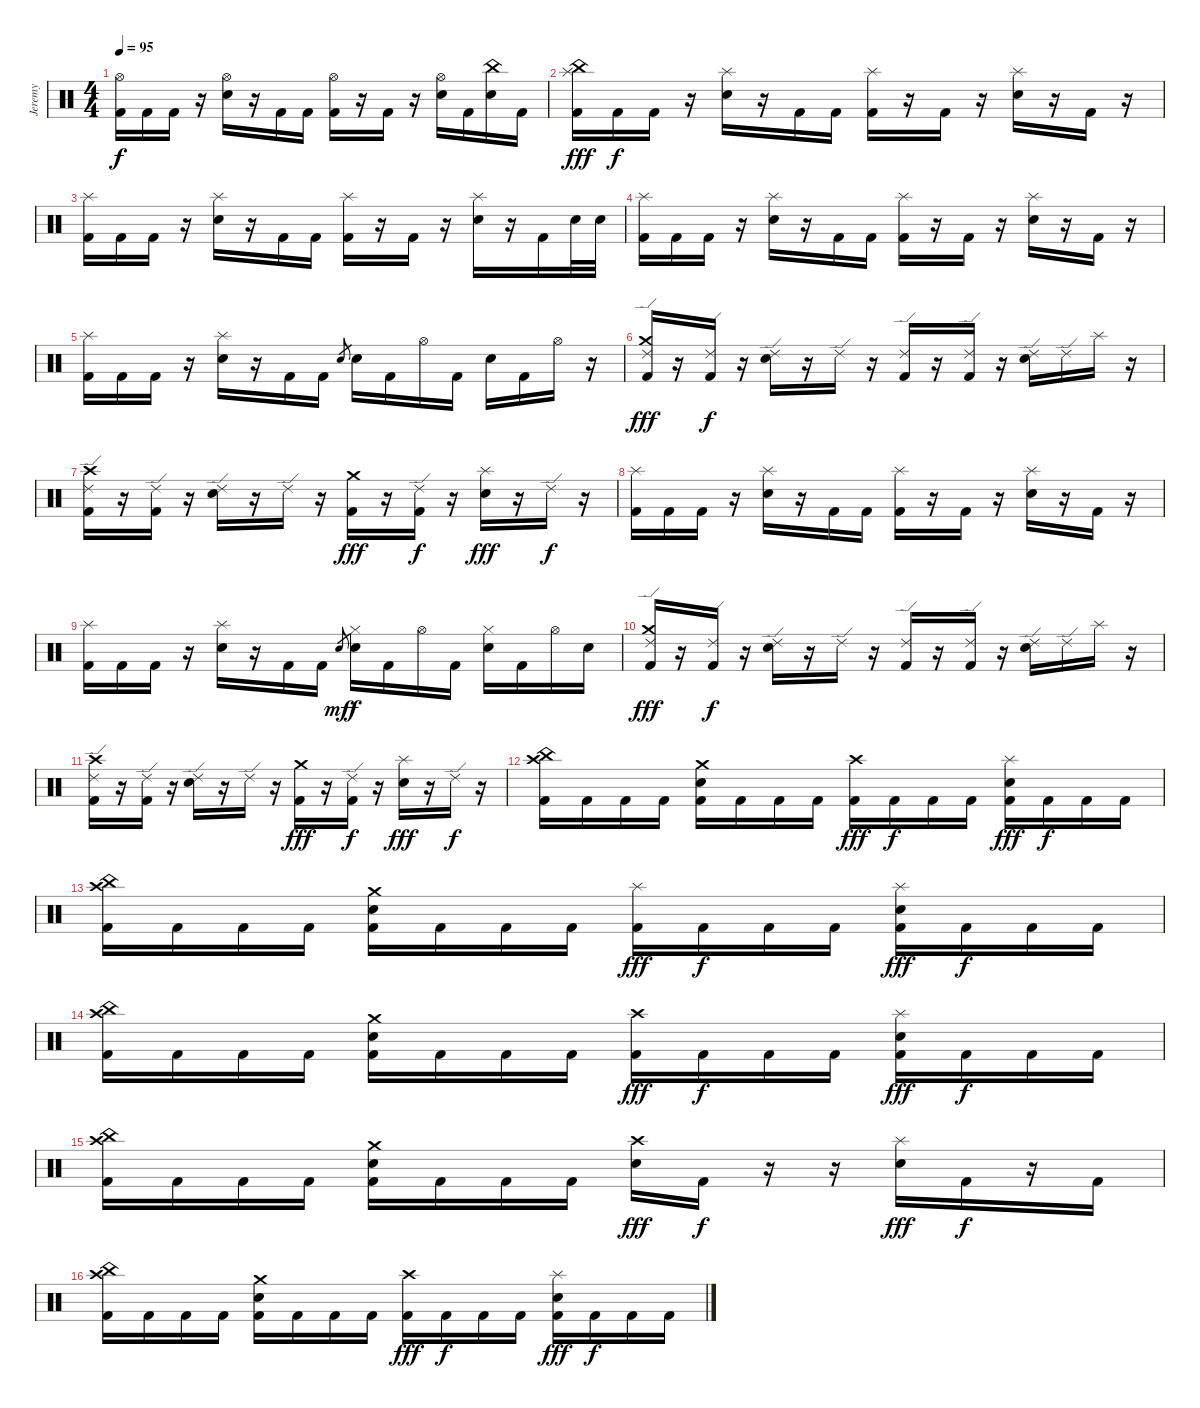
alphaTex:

\track ("Jeremy" "Jeremy") {instrument percussion}
\staff {score}
\articulation defaults
\ts (4 4)
\tempo 95
\clef neutral
\ks c
("Hi-Hat (open)" "Kick (hit) 2").16{dy f} "Kick (hit) 2".16 "Kick (hit) 2".16 r.16 ("Hi-Hat (open)" "Electric Snare (hit)").16 r.16 "Kick (hit) 2".16 "Kick (hit) 2".16 ("Hi-Hat (open)" "Kick (hit) 2").16 r.16 "Kick (hit) 2".16 r.16 ("Hi-Hat (open)" "Electric Snare (hit)").16 "Kick (hit) 2".16 ("China (hit)" "Electric Snare (hit)").16 "Kick (hit) 2".16 |
("China (hit)" "Splash (hit)" "Kick (hit) 2").16{dy fff} "Kick (hit) 2".16{dy f} "Kick (hit) 2".16 r.16 ("Splash (hit)" "Electric Snare (hit)").16 r.16 "Kick (hit) 2".16 "Kick (hit) 2".16 ("Splash (hit)" "Kick (hit) 2").16 r.16 "Kick (hit) 2".16 r.16 ("Splash (hit)" "Electric Snare (hit)").16 r.16 "Kick (hit) 2".16 r.16 |
("Splash (hit)" "Kick (hit) 2").16 "Kick (hit) 2".16 "Kick (hit) 2".16 r.16 ("Splash (hit)" "Electric Snare (hit)").16 r.16 "Kick (hit) 2".16 "Kick (hit) 2".16 ("Splash (hit)" "Kick (hit) 2").16 r.16 "Kick (hit) 2".16 r.16 ("Splash (hit)" "Electric Snare (hit)").16 r.16 "Kick (hit) 2".16 "Electric Snare (hit)".32 "Electric Snare (hit)".32 |
("Splash (hit)" "Kick (hit) 2").16 "Kick (hit) 2".16 "Kick (hit) 2".16 r.16 ("Splash (hit)" "Electric Snare (hit)").16 r.16 "Kick (hit) 2".16 "Kick (hit) 2".16 ("Splash (hit)" "Kick (hit) 2").16 r.16 "Kick (hit) 2".16 r.16 ("Splash (hit)" "Electric Snare (hit)").16 r.16 "Kick (hit) 2".16 r.16 |
("Splash (hit)" "Kick (hit) 2").16 "Kick (hit) 2".16 "Kick (hit) 2".16 r.16 ("Splash (hit)" "Electric Snare (hit)").16 r.16 "Kick (hit) 2".16 "Kick (hit) 2".16 "Electric Snare (hit)".8{gr} "Electric Snare (hit)".16 "Kick (hit) 2".16 "Hi-Hat (open)".16 "Kick (hit) 2".16 "Electric Snare (hit)".16 "Kick (hit) 2".16 "Hi-Hat (open)".16 r.16 |
("Crash medium (hit)" "Ride (edge) 2" "Kick (hit) 2").16{dy fff} r.16 ("Ride (edge) 2" "Kick (hit) 2").16{dy f} r.16 ("Ride (edge) 2" "Electric Snare (hit)").16 r.16 "Ride (edge) 2".16 r.16 ("Ride (edge) 2" "Kick (hit) 2").16 r.16 ("Ride (edge) 2" "Kick (hit) 2").16 r.16 ("Ride (edge) 2" "Electric Snare (hit)").16 "Ride (edge) 2".16 "Splash (hit)".16 r.16 |
("Crash high (hit)" "Ride (edge) 2" "Kick (hit) 2").16 r.16 ("Ride (edge) 2" "Kick (hit) 2").16 r.16 ("Ride (edge) 2" "Electric Snare (hit)").16 r.16 "Ride (edge) 2".16 r.16 ("Crash medium (hit)" "Kick (hit) 2").16{dy fff} r.16 ("Ride (edge) 2" "Kick (hit) 2").16{dy f} r.16 ("Splash (hit)" "Electric Snare (hit)").16{dy fff} r.16 "Ride (edge) 2".16{dy f} r.16 |
("Splash (hit)" "Kick (hit) 2").16 "Kick (hit) 2".16 "Kick (hit) 2".16 r.16 ("Splash (hit)" "Electric Snare (hit)").16 r.16 "Kick (hit) 2".16 "Kick (hit) 2".16 ("Splash (hit)" "Kick (hit) 2").16 r.16 "Kick (hit) 2".16 r.16 ("Splash (hit)" "Electric Snare (hit)").16 r.16 "Kick (hit) 2".16 r.16 |
("Splash (hit)" "Kick (hit) 2").16 "Kick (hit) 2".16 "Kick (hit) 2".16 r.16 ("Splash (hit)" "Electric Snare (hit)").16 r.16 "Kick (hit) 2".16 "Kick (hit) 2".16 "Electric Snare (hit)".8{gr dy mf} ("Hi-Hat (closed)" "Electric Snare (hit)").16{dy f} "Kick (hit) 2".16 "Hi-Hat (open)".16 "Kick (hit) 2".16 ("Hi-Hat (closed)" "Electric Snare (hit)").16 "Kick (hit) 2".16 "Hi-Hat (open)".16 "Electric Snare (hit)".16 |
("Crash medium (hit)" "Ride (edge) 2" "Kick (hit) 2").16{dy fff} r.16 ("Ride (edge) 2" "Kick (hit) 2").16{dy f} r.16 ("Ride (edge) 2" "Electric Snare (hit)").16 r.16 "Ride (edge) 2".16 r.16 ("Ride (edge) 2" "Kick (hit) 2").16 r.16 ("Ride (edge) 2" "Kick (hit) 2").16 r.16 ("Ride (edge) 2" "Electric Snare (hit)").16 "Ride (edge) 2".16 "Splash (hit)".16 r.16 |
("Crash high (hit)" "Ride (edge) 2" "Kick (hit) 2").16 r.16 ("Ride (edge) 2" "Kick (hit) 2").16 r.16 ("Ride (edge) 2" "Electric Snare (hit)").16 r.16 "Ride (edge) 2".16 r.16 ("Crash medium (hit)" "Kick (hit) 2").16{dy fff} r.16 ("Ride (edge) 2" "Kick (hit) 2").16{dy f} r.16 ("Splash (hit)" "Electric Snare (hit)").16{dy fff} r.16 "Ride (edge) 2".16{dy f} r.16 |
("Crash high (hit)" "China (hit)" "Kick (hit) 2").16 "Kick (hit) 2".16 "Kick (hit) 2".16 "Kick (hit) 2".16 ("Crash medium (hit)" "Electric Snare (hit)" "Kick (hit) 2").16 "Kick (hit) 2".16 "Kick (hit) 2".16 "Kick (hit) 2".16 ("Crash high (hit)" "Kick (hit) 2").16{dy fff} "Kick (hit) 2".16{dy f} "Kick (hit) 2".16 "Kick (hit) 2".16 ("Splash (hit)" "Electric Snare (hit)" "Kick (hit) 2").16{dy fff} "Kick (hit) 2".16{dy f} "Kick (hit) 2".16 "Kick (hit) 2".16 |
("Crash high (hit)" "China (hit)" "Kick (hit) 2").16 "Kick (hit) 2".16 "Kick (hit) 2".16 "Kick (hit) 2".16 ("Crash medium (hit)" "Electric Snare (hit)" "Kick (hit) 2").16 "Kick (hit) 2".16 "Kick (hit) 2".16 "Kick (hit) 2".16 ("Splash (hit)" "Kick (hit) 2").16{dy fff} "Kick (hit) 2".16{dy f} "Kick (hit) 2".16 "Kick (hit) 2".16 ("Splash (hit)" "Electric Snare (hit)" "Kick (hit) 2").16{dy fff} "Kick (hit) 2".16{dy f} "Kick (hit) 2".16 "Kick (hit) 2".16 |
("Crash high (hit)" "China (hit)" "Kick (hit) 2").16 "Kick (hit) 2".16 "Kick (hit) 2".16 "Kick (hit) 2".16 ("Crash medium (hit)" "Electric Snare (hit)" "Kick (hit) 2").16 "Kick (hit) 2".16 "Kick (hit) 2".16 "Kick (hit) 2".16 ("Crash high (hit)" "Kick (hit) 2").16{dy fff} "Kick (hit) 2".16{dy f} "Kick (hit) 2".16 "Kick (hit) 2".16 ("Splash (hit)" "Electric Snare (hit)" "Kick (hit) 2").16{dy fff} "Kick (hit) 2".16{dy f} "Kick (hit) 2".16 "Kick (hit) 2".16 |
("Crash high (hit)" "China (hit)" "Kick (hit) 2").16 "Kick (hit) 2".16 "Kick (hit) 2".16 "Kick (hit) 2".16 ("Crash medium (hit)" "Electric Snare (hit)" "Kick (hit) 2").16 "Kick (hit) 2".16 "Kick (hit) 2".16 "Kick (hit) 2".16 ("Crash high (hit)" "Electric Snare (hit)").16{dy fff} "Kick (hit) 2".16{dy f} r.16 r.16 ("Splash (hit)" "Electric Snare (hit)").16{dy fff} "Kick (hit) 2".16{dy f} r.16 "Kick (hit) 2".16 |
("Crash high (hit)" "China (hit)" "Kick (hit) 2").16 "Kick (hit) 2".16 "Kick (hit) 2".16 "Kick (hit) 2".16 ("Crash medium (hit)" "Electric Snare (hit)" "Kick (hit) 2").16 "Kick (hit) 2".16 "Kick (hit) 2".16 "Kick (hit) 2".16 ("Crash high (hit)" "Kick (hit) 2").16{dy fff} "Kick (hit) 2".16{dy f} "Kick (hit) 2".16 "Kick (hit) 2".16 ("Splash (hit)" "Electric Snare (hit)" "Kick (hit) 2").16{dy fff} "Kick (hit) 2".16{dy f} "Kick (hit) 2".16 "Kick (hit) 2".16
